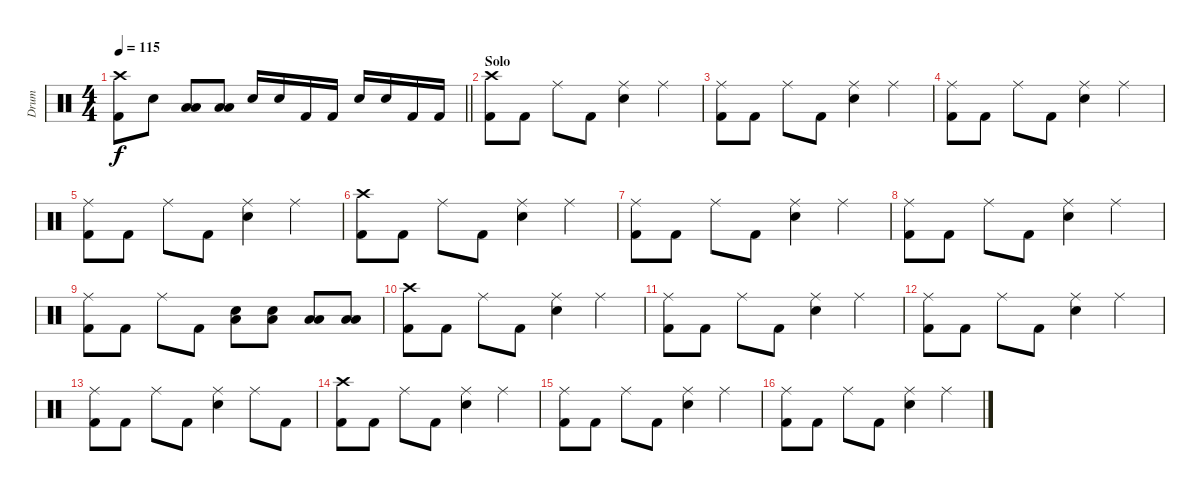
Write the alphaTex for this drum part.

\track ("Drum" "Drum") {instrument percussion}
\staff {score}
\articulation defaults
\ts (4 4)
\tempo 115
\clef neutral
\barLineRight lightlight
\ks c
("Kick (hit) 2" "Crash high (hit)").8{dy f} "Electric Snare (hit)".8 ("Low Floor Tom (hit)" "Low Tom (hit)").8 ("Low Floor Tom (hit)" "Low Tom (hit)").8 "Electric Snare (hit)".16 "Electric Snare (hit)".16 "Kick (hit) 2".16 "Kick (hit) 2".16 "Electric Snare (hit)".16 "Electric Snare (hit)".16 "Kick (hit) 2".16 "Kick (hit) 2".16 |
\section ("" "Solo")
("Kick (hit) 2" "Crash high (hit)").8 "Kick (hit) 2".8 "Ride (middle)".8 "Kick (hit) 2".8 ("Ride (middle)" "Electric Snare (hit)").4 "Ride (middle)".4 |
("Kick (hit) 2" "Ride (middle)").8 "Kick (hit) 2".8 "Ride (middle)".8 "Kick (hit) 2".8 ("Ride (middle)" "Electric Snare (hit)").4 "Ride (middle)".4 |
("Kick (hit) 2" "Ride (middle)").8 "Kick (hit) 2".8 "Ride (middle)".8 "Kick (hit) 2".8 ("Ride (middle)" "Electric Snare (hit)").4 "Ride (middle)".4 |
("Kick (hit) 2" "Ride (middle)").8 "Kick (hit) 2".8 "Ride (middle)".8 "Kick (hit) 2".8 ("Ride (middle)" "Electric Snare (hit)").4 "Ride (middle)".4 |
("Kick (hit) 2" "Crash high (hit)").8 "Kick (hit) 2".8 "Ride (middle)".8 "Kick (hit) 2".8 ("Ride (middle)" "Electric Snare (hit)").4 "Ride (middle)".4 |
("Kick (hit) 2" "Ride (middle)").8 "Kick (hit) 2".8 "Ride (middle)".8 "Kick (hit) 2".8 ("Ride (middle)" "Electric Snare (hit)").4 "Ride (middle)".4 |
("Kick (hit) 2" "Ride (middle)").8 "Kick (hit) 2".8 "Ride (middle)".8 "Kick (hit) 2".8 ("Ride (middle)" "Electric Snare (hit)").4 "Ride (middle)".4 |
("Kick (hit) 2" "Ride (middle)").8 "Kick (hit) 2".8 "Ride (middle)".8 "Kick (hit) 2".8 ("Low Tom (hit)" "Electric Snare (hit)").8 ("Low Tom (hit)" "Electric Snare (hit)").8 ("Low Floor Tom (hit)" "Low Tom (hit)").8 ("Low Floor Tom (hit)" "Low Tom (hit)").8 |
("Kick (hit) 2" "Crash high (hit)").8 "Kick (hit) 2".8 "Ride (middle)".8 "Kick (hit) 2".8 ("Ride (middle)" "Electric Snare (hit)").4 "Ride (middle)".4 |
("Kick (hit) 2" "Ride (middle)").8 "Kick (hit) 2".8 "Ride (middle)".8 "Kick (hit) 2".8 ("Ride (middle)" "Electric Snare (hit)").4 "Ride (middle)".4 |
("Kick (hit) 2" "Ride (middle)").8 "Kick (hit) 2".8 "Ride (middle)".8 "Kick (hit) 2".8 ("Ride (middle)" "Electric Snare (hit)").4 "Ride (middle)".4 |
("Kick (hit) 2" "Ride (middle)").8 "Kick (hit) 2".8 "Ride (middle)".8 "Kick (hit) 2".8 ("Ride (middle)" "Electric Snare (hit)").4 "Ride (middle)".8 "Kick (hit) 2".8 |
("Kick (hit) 2" "Crash high (hit)").8 "Kick (hit) 2".8 "Ride (middle)".8 "Kick (hit) 2".8 ("Ride (middle)" "Electric Snare (hit)").4 "Ride (middle)".4 |
("Kick (hit) 2" "Ride (middle)").8 "Kick (hit) 2".8 "Ride (middle)".8 "Kick (hit) 2".8 ("Ride (middle)" "Electric Snare (hit)").4 "Ride (middle)".4 |
("Kick (hit) 2" "Ride (middle)").8 "Kick (hit) 2".8 "Ride (middle)".8 "Kick (hit) 2".8 ("Ride (middle)" "Electric Snare (hit)").4 "Ride (middle)".4
